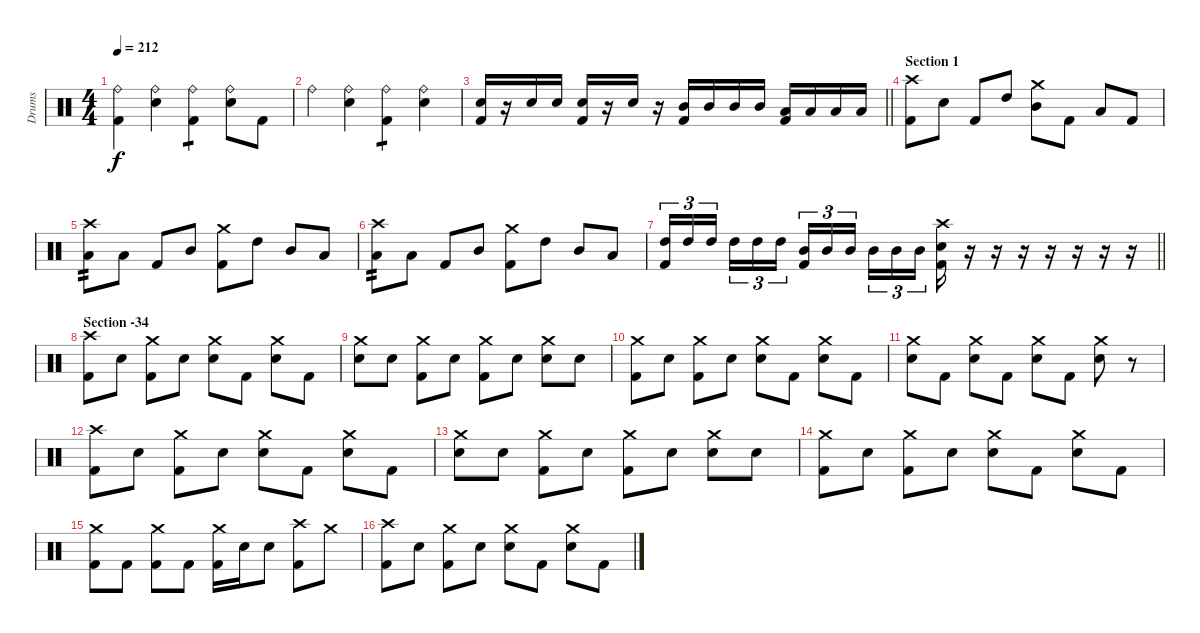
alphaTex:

\track ("Drums" "Drums") {instrument percussion}
\staff {score}
\articulation defaults
\ts (4 4)
\tempo 212
\clef neutral
\ks c
("Ride (bell)" "Kick (hit) 2").4{dy f} ("Ride (bell)" "Snare (hit) 2").4 ("Ride (bell)" "Kick (hit) 2").4{tp 1} ("Ride (bell)" "Snare (hit) 2").8 "Kick (hit) 2".8 |
"Ride (bell)".4 ("Ride (bell)" "Snare (hit) 2").4 ("Ride (bell)" "Kick (hit) 2").4{tp 1} ("Ride (bell)" "Snare (hit) 2").4 |
\barLineRight lightlight
("Snare (hit) 2" "Kick (hit) 2").16 r.16 "Snare (hit) 2".16 "Snare (hit) 2".16 ("Snare (hit) 2" "Kick (hit) 2").16 r.16 "Snare (hit) 2".16 r.16 ("Mid Tom (hit)" "Kick (hit) 2").16 "Mid Tom (hit)".16 "Mid Tom (hit)".16 "Mid Tom (hit)".16 ("Low Tom (hit)" "Kick (hit) 2").16 "Low Tom (hit)".16 "Low Tom (hit)".16 "Low Tom (hit)".16 |
\section ("" "Section 1")
("Crash high (hit)" "Kick (hit) 2").8 "Snare (hit) 2".8 "Kick (hit) 2".8 "High Tom (hit)".8 ("Crash medium (hit)" "Mid Tom (hit)").8 "Kick (hit) 2".8 "Low Tom (hit)".8 "Kick (hit) 2".8 |
("Crash high (hit)" "Low Tom (hit)").8{tp 2} "Low Tom (hit)".8 "Kick (hit) 2".8 "Mid Tom (hit)".8 ("Crash medium (hit)" "Kick (hit) 2").8 "High Tom (hit)".8 "Mid Tom (hit)".8 "Low Tom (hit)".8 |
("Crash high (hit)" "Low Tom (hit)").8{tp 2} "Low Tom (hit)".8 "Kick (hit) 2".8 "Mid Tom (hit)".8 ("Crash medium (hit)" "Kick (hit) 2").8 "High Tom (hit)".8 "Mid Tom (hit)".8 "Low Tom (hit)".8 |
\barLineRight lightlight
("High Tom (hit)" "Kick (hit) 2").16{tu (3 2)} "High Tom (hit)".16{tu (3 2)} "High Tom (hit)".16{tu (3 2) beam splitsecondary} "High Tom (hit)".16{tu (3 2)} "High Tom (hit)".16{tu (3 2)} "High Tom (hit)".16{tu (3 2)} ("Mid Tom (hit)" "Kick (hit) 2").16{tu (3 2)} "Mid Tom (hit)".16{tu (3 2)} "Mid Tom (hit)".16{tu (3 2) beam splitsecondary} "Mid Tom (hit)".16{tu (3 2)} "Mid Tom (hit)".16{tu (3 2)} "Mid Tom (hit)".16{tu (3 2)} ("Crash high (hit)" "Snare (hit) 2" "Kick (hit) 2").16 r.16 r.16 r.16 r.16 r.16 r.16 r.16 |
\section ("" "Section -34")
("Crash high (hit)" "Kick (hit) 2").8 "Snare (hit) 2".8 ("Crash medium (hit)" "Kick (hit) 2").8 "Snare (hit) 2".8 ("Crash medium (hit)" "Snare (hit) 2").8 "Kick (hit) 2".8 ("Crash medium (hit)" "Snare (hit) 2").8 "Kick (hit) 2".8 |
("Crash medium (hit)" "Snare (hit) 2").8 "Snare (hit) 2".8 ("Crash medium (hit)" "Kick (hit) 2").8 "Snare (hit) 2".8 ("Crash medium (hit)" "Kick (hit) 2").8 "Snare (hit) 2".8 ("Crash medium (hit)" "Snare (hit) 2").8 "Snare (hit) 2".8 |
("Crash medium (hit)" "Kick (hit) 2").8 "Snare (hit) 2".8 ("Crash medium (hit)" "Kick (hit) 2").8 "Snare (hit) 2".8 ("Crash medium (hit)" "Snare (hit) 2").8 "Kick (hit) 2".8 ("Crash medium (hit)" "Snare (hit) 2").8 "Kick (hit) 2".8 |
("Crash medium (hit)" "Snare (hit) 2").8 "Kick (hit) 2".8 ("Crash medium (hit)" "Snare (hit) 2").8 "Kick (hit) 2".8 ("Crash medium (hit)" "Snare (hit) 2").8 "Kick (hit) 2".8 ("Crash medium (hit)" "Snare (hit) 2").8 r.8 |
("Crash high (hit)" "Kick (hit) 2").8 "Snare (hit) 2".8 ("Crash medium (hit)" "Kick (hit) 2").8 "Snare (hit) 2".8 ("Crash medium (hit)" "Snare (hit) 2").8 "Kick (hit) 2".8 ("Crash medium (hit)" "Snare (hit) 2").8 "Kick (hit) 2".8 |
("Crash medium (hit)" "Snare (hit) 2").8 "Snare (hit) 2".8 ("Crash medium (hit)" "Kick (hit) 2").8 "Snare (hit) 2".8 ("Crash medium (hit)" "Kick (hit) 2").8 "Snare (hit) 2".8 ("Crash medium (hit)" "Snare (hit) 2").8 "Snare (hit) 2".8 |
("Crash medium (hit)" "Kick (hit) 2").8 "Snare (hit) 2".8 ("Crash medium (hit)" "Kick (hit) 2").8 "Snare (hit) 2".8 ("Crash medium (hit)" "Snare (hit) 2").8 "Kick (hit) 2".8 ("Crash medium (hit)" "Snare (hit) 2").8 "Kick (hit) 2".8 |
("Crash medium (hit)" "Kick (hit) 2").8 "Kick (hit) 2".8 ("Crash medium (hit)" "Kick (hit) 2").8 "Kick (hit) 2".8 ("Crash medium (hit)" "Kick (hit) 2").16 "Snare (hit) 2".16 "Snare (hit) 2".8 ("Crash high (hit)" "Kick (hit) 2").8 "Crash medium (hit)".8 |
("Crash high (hit)" "Kick (hit) 2").8 "Snare (hit) 2".8 ("Crash medium (hit)" "Kick (hit) 2").8 "Snare (hit) 2".8 ("Crash medium (hit)" "Snare (hit) 2").8 "Kick (hit) 2".8 ("Crash medium (hit)" "Snare (hit) 2").8 "Kick (hit) 2".8
